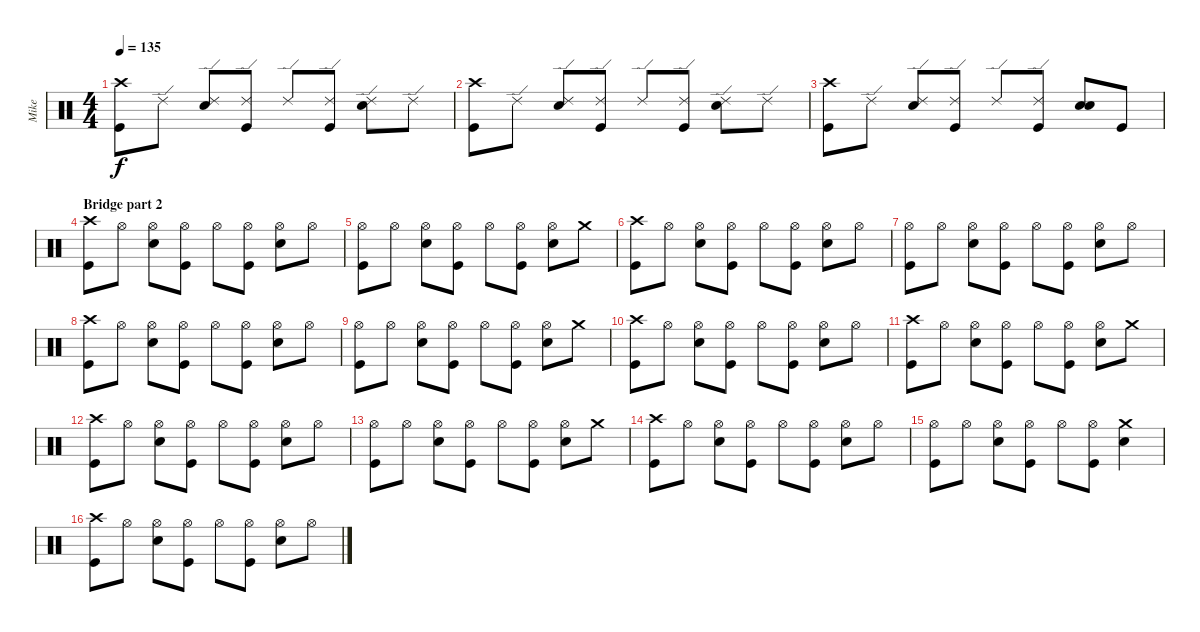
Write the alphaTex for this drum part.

\track ("Mike" "Mike") {instrument percussion}
\staff {score}
\articulation defaults
\ts (4 4)
\tempo 135
\clef neutral
\ks c
("Crash high (hit)" "Kick (hit)").8{dy f} "Ride (edge) 2".8 ("Ride (edge) 2" "Electric Snare (hit)").8 ("Ride (edge) 2" "Kick (hit)").8 "Ride (edge) 2".8 ("Ride (edge) 2" "Kick (hit)").8 ("Ride (edge) 2" "Electric Snare (hit)").8 "Ride (edge) 2".8 |
("Crash high (hit)" "Kick (hit)").8 "Ride (edge) 2".8 ("Ride (edge) 2" "Electric Snare (hit)").8 ("Ride (edge) 2" "Kick (hit)").8 "Ride (edge) 2".8 ("Ride (edge) 2" "Kick (hit)").8 ("Ride (edge) 2" "Electric Snare (hit)").8 "Ride (edge) 2".8 |
("Crash high (hit)" "Kick (hit)").8 "Ride (edge) 2".8 ("Ride (edge) 2" "Electric Snare (hit)").8 ("Ride (edge) 2" "Kick (hit)").8 "Ride (edge) 2".8 ("Ride (edge) 2" "Kick (hit)").8 ("Electric Snare (hit)" "Electric Snare (hit)").8{bu 240} "Kick (hit)".8 |
\section ("" "Bridge part 2")
("Crash high (hit)" "Kick (hit)").8 "Hi-Hat (open)".8 ("Hi-Hat (open)" "Electric Snare (hit)").8 ("Hi-Hat (open)" "Kick (hit)").8 "Hi-Hat (open)".8 ("Hi-Hat (open)" "Kick (hit)").8 ("Hi-Hat (open)" "Electric Snare (hit)").8 "Hi-Hat (open)".8 |
("Hi-Hat (open)" "Kick (hit)").8 "Hi-Hat (open)".8 ("Hi-Hat (open)" "Electric Snare (hit)").8 ("Hi-Hat (open)" "Kick (hit)").8 "Hi-Hat (open)".8 ("Hi-Hat (open)" "Kick (hit)").8 ("Hi-Hat (open)" "Electric Snare (hit)").8 "Crash medium (hit)".8 |
("Crash high (hit)" "Kick (hit)").8 "Hi-Hat (open)".8 ("Hi-Hat (open)" "Electric Snare (hit)").8 ("Hi-Hat (open)" "Kick (hit)").8 "Hi-Hat (open)".8 ("Hi-Hat (open)" "Kick (hit)").8 ("Hi-Hat (open)" "Electric Snare (hit)").8 "Hi-Hat (open)".8 |
("Hi-Hat (open)" "Kick (hit)").8 "Hi-Hat (open)".8 ("Hi-Hat (open)" "Electric Snare (hit)").8 ("Hi-Hat (open)" "Kick (hit)").8 "Hi-Hat (open)".8 ("Hi-Hat (open)" "Kick (hit)").8 ("Hi-Hat (open)" "Electric Snare (hit)").8 "Hi-Hat (open)".8 |
("Crash high (hit)" "Kick (hit)").8 "Hi-Hat (open)".8 ("Hi-Hat (open)" "Electric Snare (hit)").8 ("Hi-Hat (open)" "Kick (hit)").8 "Hi-Hat (open)".8 ("Hi-Hat (open)" "Kick (hit)").8 ("Hi-Hat (open)" "Electric Snare (hit)").8 "Hi-Hat (open)".8 |
("Hi-Hat (open)" "Kick (hit)").8 "Hi-Hat (open)".8 ("Hi-Hat (open)" "Electric Snare (hit)").8 ("Hi-Hat (open)" "Kick (hit)").8 "Hi-Hat (open)".8 ("Hi-Hat (open)" "Kick (hit)").8 ("Hi-Hat (open)" "Electric Snare (hit)").8 "Crash medium (hit)".8 |
("Crash high (hit)" "Kick (hit)").8 "Hi-Hat (open)".8 ("Hi-Hat (open)" "Electric Snare (hit)").8 ("Hi-Hat (open)" "Kick (hit)").8 "Hi-Hat (open)".8 ("Hi-Hat (open)" "Kick (hit)").8 ("Hi-Hat (open)" "Electric Snare (hit)").8 "Hi-Hat (open)".8 |
("Crash high (hit)" "Kick (hit)").8 "Hi-Hat (open)".8 ("Hi-Hat (open)" "Electric Snare (hit)").8 ("Hi-Hat (open)" "Kick (hit)").8 "Hi-Hat (open)".8 ("Hi-Hat (open)" "Kick (hit)").8 ("Hi-Hat (open)" "Electric Snare (hit)").8 "Crash medium (hit)".8 |
("Crash high (hit)" "Kick (hit)").8 "Hi-Hat (open)".8 ("Hi-Hat (open)" "Electric Snare (hit)").8 ("Hi-Hat (open)" "Kick (hit)").8 "Hi-Hat (open)".8 ("Hi-Hat (open)" "Kick (hit)").8 ("Hi-Hat (open)" "Electric Snare (hit)").8 "Hi-Hat (open)".8 |
("Hi-Hat (open)" "Kick (hit)").8 "Hi-Hat (open)".8 ("Hi-Hat (open)" "Electric Snare (hit)").8 ("Hi-Hat (open)" "Kick (hit)").8 "Hi-Hat (open)".8 ("Hi-Hat (open)" "Kick (hit)").8 ("Hi-Hat (open)" "Electric Snare (hit)").8 "Crash medium (hit)".8 |
("Crash high (hit)" "Kick (hit)").8 "Hi-Hat (open)".8 ("Hi-Hat (open)" "Electric Snare (hit)").8 ("Hi-Hat (open)" "Kick (hit)").8 "Hi-Hat (open)".8 ("Hi-Hat (open)" "Kick (hit)").8 ("Hi-Hat (open)" "Electric Snare (hit)").8 "Hi-Hat (open)".8 |
("Hi-Hat (open)" "Kick (hit)").8 "Hi-Hat (open)".8 ("Hi-Hat (open)" "Electric Snare (hit)").8 ("Hi-Hat (open)" "Kick (hit)").8 "Hi-Hat (open)".8 ("Hi-Hat (open)" "Kick (hit)").8 ("Crash medium (hit)" "Electric Snare (hit)").4 |
("Crash high (hit)" "Kick (hit)").8 "Hi-Hat (open)".8 ("Hi-Hat (open)" "Electric Snare (hit)").8 ("Hi-Hat (open)" "Kick (hit)").8 "Hi-Hat (open)".8 ("Hi-Hat (open)" "Kick (hit)").8 ("Hi-Hat (open)" "Electric Snare (hit)").8 "Hi-Hat (open)".8
